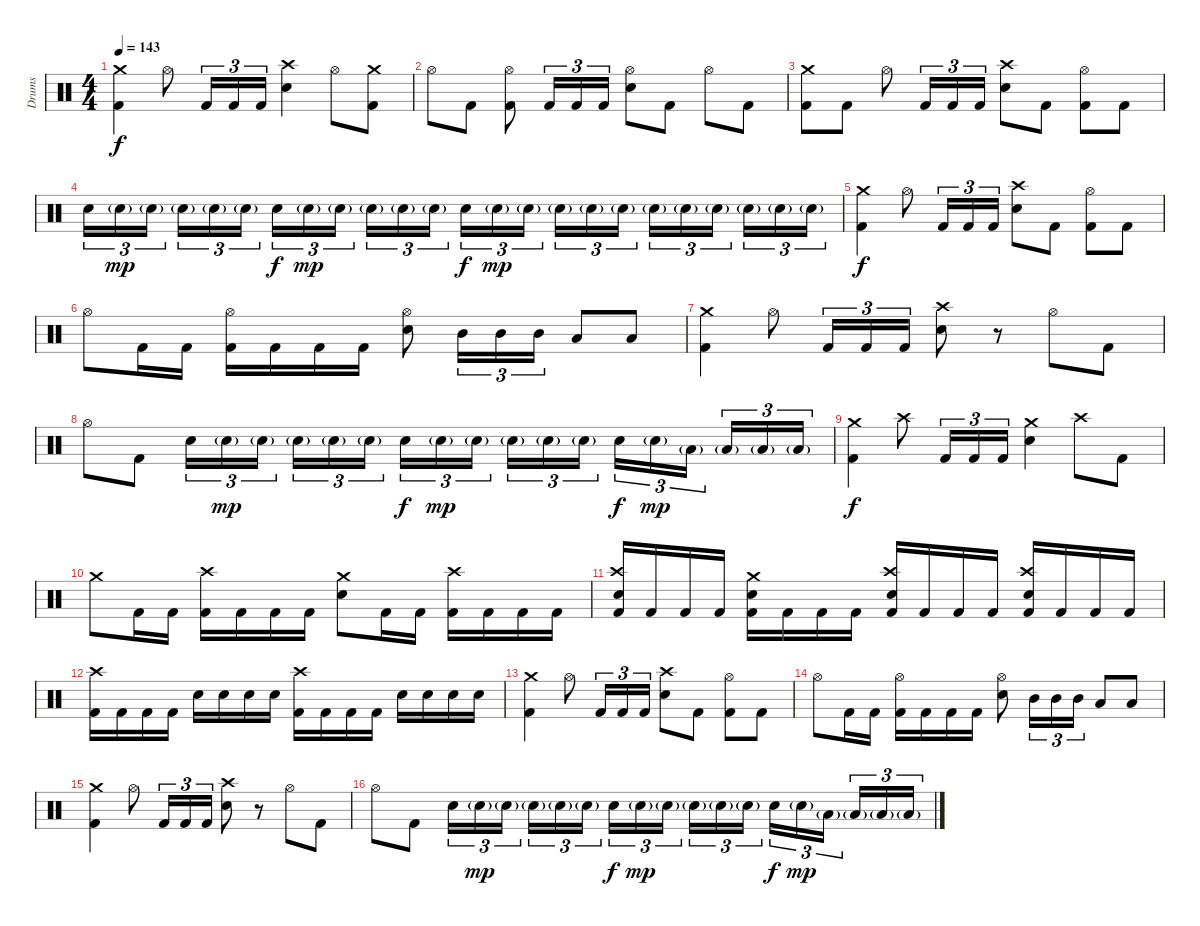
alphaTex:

\track ("Drums" "Drums") {instrument percussion}
\staff {score}
\articulation defaults
\ts (4 4)
\tempo 143
\clef neutral
\ks c
("Crash medium (hit)" "Kick (hit) 2").4{dy f} "Hi-Hat (open)".8 "Kick (hit) 2".16{tu (3 2)} "Kick (hit) 2".16{tu (3 2)} "Kick (hit) 2".16{tu (3 2)} ("Crash high (hit)" "Electric Snare (hit)").4 "Hi-Hat (open)".8 ("Crash medium (hit)" "Kick (hit) 2").8 |
"Hi-Hat (open)".8 "Kick (hit) 2".8 ("Hi-Hat (open)" "Kick (hit) 2").8 "Kick (hit) 2".16{tu (3 2)} "Kick (hit) 2".16{tu (3 2)} "Kick (hit) 2".16{tu (3 2)} ("Hi-Hat (open)" "Electric Snare (hit)").8 "Kick (hit) 2".8 "Hi-Hat (open)".8 "Kick (hit) 2".8 |
("Crash medium (hit)" "Kick (hit) 2").8 "Kick (hit) 2".8 "Hi-Hat (open)".8 "Kick (hit) 2".16{tu (3 2)} "Kick (hit) 2".16{tu (3 2)} "Kick (hit) 2".16{tu (3 2)} ("Crash high (hit)" "Electric Snare (hit)").8 "Kick (hit) 2".8 ("Hi-Hat (open)" "Kick (hit) 2").8 "Kick (hit) 2".8 |
"Electric Snare (hit)".16{tu (3 2)} "Electric Snare (hit)"{g}.16{tu (3 2) dy mp} "Electric Snare (hit)"{g}.16{tu (3 2) beam splitsecondary} "Electric Snare (hit)"{g}.16{tu (3 2)} "Electric Snare (hit)"{g}.16{tu (3 2)} "Electric Snare (hit)"{g}.16{tu (3 2)} "Electric Snare (hit)".16{tu (3 2) dy f} "Electric Snare (hit)"{g}.16{tu (3 2) dy mp} "Electric Snare (hit)"{g}.16{tu (3 2) beam splitsecondary} "Electric Snare (hit)"{g}.16{tu (3 2)} "Electric Snare (hit)"{g}.16{tu (3 2)} "Electric Snare (hit)"{g}.16{tu (3 2)} "Electric Snare (hit)".16{tu (3 2) dy f} "Electric Snare (hit)"{g}.16{tu (3 2) dy mp} "Electric Snare (hit)"{g}.16{tu (3 2) beam splitsecondary} "Electric Snare (hit)"{g}.16{tu (3 2)} "Electric Snare (hit)"{g}.16{tu (3 2)} "Electric Snare (hit)"{g}.16{tu (3 2)} "Electric Snare (hit)"{g}.16{tu (3 2)} "Electric Snare (hit)"{g}.16{tu (3 2)} "Electric Snare (hit)"{g}.16{tu (3 2) beam splitsecondary} "Electric Snare (hit)"{g}.16{tu (3 2)} "Electric Snare (hit)"{g}.16{tu (3 2)} "Electric Snare (hit)"{g}.16{tu (3 2)} |
("Crash medium (hit)" "Kick (hit) 2").4{dy f} "Hi-Hat (open)".8 "Kick (hit) 2".16{tu (3 2)} "Kick (hit) 2".16{tu (3 2)} "Kick (hit) 2".16{tu (3 2)} ("Crash high (hit)" "Electric Snare (hit)").8 "Kick (hit) 2".8 ("Hi-Hat (open)" "Kick (hit) 2").8 "Kick (hit) 2".8 |
"Hi-Hat (open)".8 "Kick (hit) 2".16 "Kick (hit) 2".16 ("Hi-Hat (open)" "Kick (hit) 2").16 "Kick (hit) 2".16 "Kick (hit) 2".16 "Kick (hit) 2".16 ("Hi-Hat (open)" "Electric Snare (hit)").8 "Mid Tom (hit)".16{tu (3 2)} "Mid Tom (hit)".16{tu (3 2)} "Mid Tom (hit)".16{tu (3 2)} "Low Tom (hit)".8 "Low Tom (hit)".8 |
("Crash medium (hit)" "Kick (hit) 2").4 "Hi-Hat (open)".8 "Kick (hit) 2".16{tu (3 2)} "Kick (hit) 2".16{tu (3 2)} "Kick (hit) 2".16{tu (3 2)} ("Crash high (hit)" "Electric Snare (hit)").8 r.8 "Hi-Hat (open)".8 "Kick (hit) 2".8 |
"Hi-Hat (open)".8 "Kick (hit) 2".8 "Electric Snare (hit)".16{tu (3 2)} "Electric Snare (hit)"{g}.16{tu (3 2) dy mp} "Electric Snare (hit)"{g}.16{tu (3 2) beam splitsecondary} "Electric Snare (hit)"{g}.16{tu (3 2)} "Electric Snare (hit)"{g}.16{tu (3 2)} "Electric Snare (hit)"{g}.16{tu (3 2)} "Electric Snare (hit)".16{tu (3 2) dy f} "Electric Snare (hit)"{g}.16{tu (3 2) dy mp} "Electric Snare (hit)"{g}.16{tu (3 2) beam splitsecondary} "Electric Snare (hit)"{g}.16{tu (3 2)} "Electric Snare (hit)"{g}.16{tu (3 2)} "Electric Snare (hit)"{g}.16{tu (3 2)} "Electric Snare (hit)".16{tu (3 2) dy f} "Electric Snare (hit)"{g}.16{tu (3 2) dy mp} "Low Tom (hit)"{g}.16{tu (3 2) beam splitsecondary} "Low Tom (hit)"{g}.16{tu (3 2)} "Low Tom (hit)"{g}.16{tu (3 2)} "Low Tom (hit)"{g}.16{tu (3 2)} |
("Crash medium (hit)" "Kick (hit) 2").4{dy f} "Crash high (hit)".8 "Kick (hit) 2".16{tu (3 2)} "Kick (hit) 2".16{tu (3 2)} "Kick (hit) 2".16{tu (3 2)} ("Crash medium (hit)" "Electric Snare (hit)").4 "Crash high (hit)".8 "Kick (hit) 2".8 |
"Crash medium (hit)".8 "Kick (hit) 2".16 "Kick (hit) 2".16 ("Crash high (hit)" "Kick (hit) 2").16 "Kick (hit) 2".16 "Kick (hit) 2".16 "Kick (hit) 2".16 ("Crash medium (hit)" "Electric Snare (hit)").8 "Kick (hit) 2".16 "Kick (hit) 2".16 ("Crash high (hit)" "Kick (hit) 2").16 "Kick (hit) 2".16 "Kick (hit) 2".16 "Kick (hit) 2".16 |
("Crash high (hit)" "Electric Snare (hit)" "Kick (hit) 2").16 "Kick (hit) 2".16 "Kick (hit) 2".16 "Kick (hit) 2".16 ("Crash medium (hit)" "Electric Snare (hit)" "Kick (hit) 2").16 "Kick (hit) 2".16 "Kick (hit) 2".16 "Kick (hit) 2".16 ("Crash high (hit)" "Electric Snare (hit)" "Kick (hit) 2").16 "Kick (hit) 2".16 "Kick (hit) 2".16 "Kick (hit) 2".16 ("Crash high (hit)" "Electric Snare (hit)" "Kick (hit) 2").16 "Kick (hit) 2".16 "Kick (hit) 2".16 "Kick (hit) 2".16 |
("Crash high (hit)" "Kick (hit) 2").16 "Kick (hit) 2".16 "Kick (hit) 2".16 "Kick (hit) 2".16 "Electric Snare (hit)".16 "Electric Snare (hit)".16 "Electric Snare (hit)".16 "Electric Snare (hit)".16 ("Crash high (hit)" "Kick (hit) 2").16 "Kick (hit) 2".16 "Kick (hit) 2".16 "Kick (hit) 2".16 "Electric Snare (hit)".16 "Electric Snare (hit)".16 "Electric Snare (hit)".16 "Electric Snare (hit)".16 |
("Crash medium (hit)" "Kick (hit) 2").4 "Hi-Hat (open)".8 "Kick (hit) 2".16{tu (3 2)} "Kick (hit) 2".16{tu (3 2)} "Kick (hit) 2".16{tu (3 2)} ("Crash high (hit)" "Electric Snare (hit)").8 "Kick (hit) 2".8 ("Hi-Hat (open)" "Kick (hit) 2").8 "Kick (hit) 2".8 |
"Hi-Hat (open)".8 "Kick (hit) 2".16 "Kick (hit) 2".16 ("Hi-Hat (open)" "Kick (hit) 2").16 "Kick (hit) 2".16 "Kick (hit) 2".16 "Kick (hit) 2".16 ("Hi-Hat (open)" "Electric Snare (hit)").8 "Mid Tom (hit)".16{tu (3 2)} "Mid Tom (hit)".16{tu (3 2)} "Mid Tom (hit)".16{tu (3 2)} "Low Tom (hit)".8 "Low Tom (hit)".8 |
("Crash medium (hit)" "Kick (hit) 2").4 "Hi-Hat (open)".8 "Kick (hit) 2".16{tu (3 2)} "Kick (hit) 2".16{tu (3 2)} "Kick (hit) 2".16{tu (3 2)} ("Crash high (hit)" "Electric Snare (hit)").8 r.8 "Hi-Hat (open)".8 "Kick (hit) 2".8 |
"Hi-Hat (open)".8 "Kick (hit) 2".8 "Electric Snare (hit)".16{tu (3 2)} "Electric Snare (hit)"{g}.16{tu (3 2) dy mp} "Electric Snare (hit)"{g}.16{tu (3 2) beam splitsecondary} "Electric Snare (hit)"{g}.16{tu (3 2)} "Electric Snare (hit)"{g}.16{tu (3 2)} "Electric Snare (hit)"{g}.16{tu (3 2)} "Electric Snare (hit)".16{tu (3 2) dy f} "Electric Snare (hit)"{g}.16{tu (3 2) dy mp} "Electric Snare (hit)"{g}.16{tu (3 2) beam splitsecondary} "Electric Snare (hit)"{g}.16{tu (3 2)} "Electric Snare (hit)"{g}.16{tu (3 2)} "Electric Snare (hit)"{g}.16{tu (3 2)} "Electric Snare (hit)".16{tu (3 2) dy f} "Electric Snare (hit)"{g}.16{tu (3 2) dy mp} "Low Tom (hit)"{g}.16{tu (3 2) beam splitsecondary} "Low Tom (hit)"{g}.16{tu (3 2)} "Low Tom (hit)"{g}.16{tu (3 2)} "Low Tom (hit)"{g}.16{tu (3 2)}
